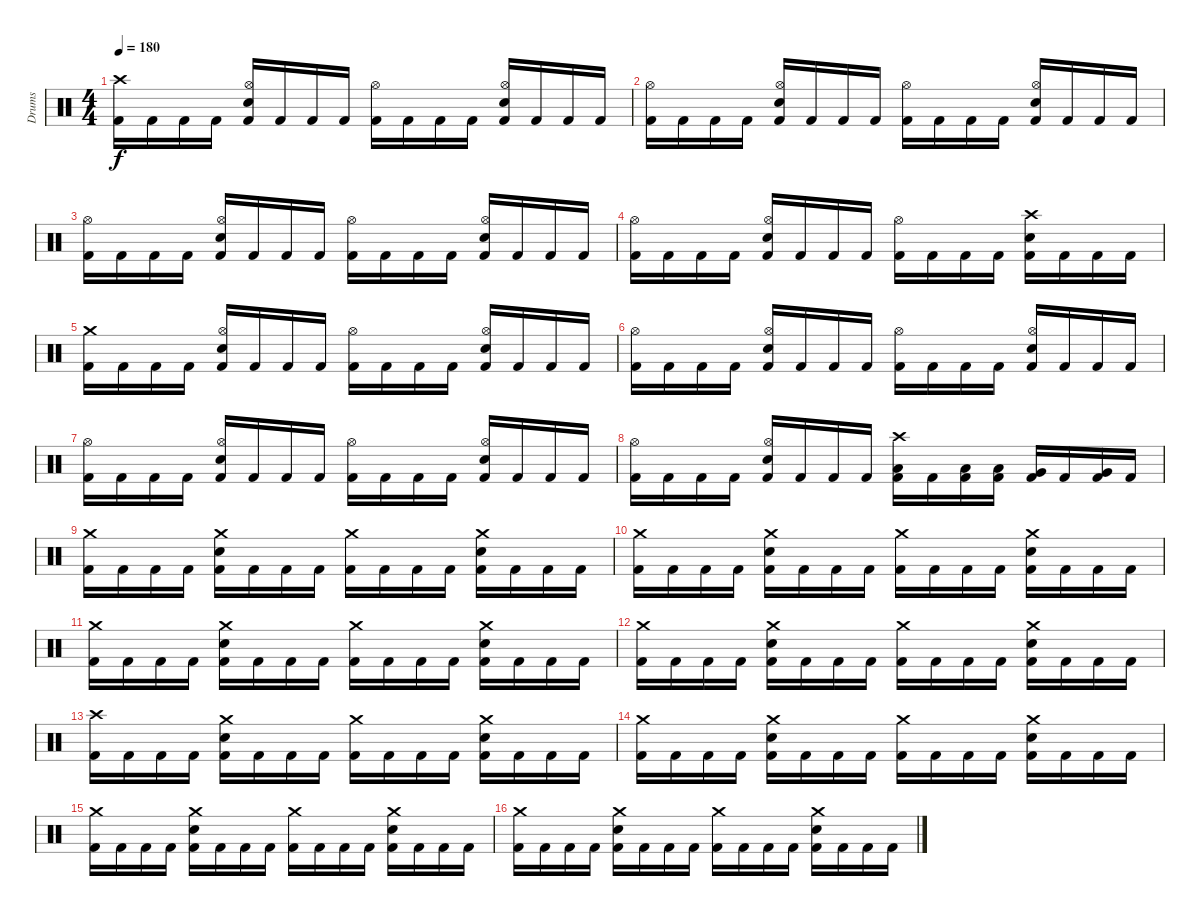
\track ("Drums" "Drums") {instrument percussion}
\staff {score}
\articulation defaults
\ts (4 4)
\tempo 180
\clef neutral
\ks c
("Crash high (hit)" "Kick (hit) 2").16{dy f} "Kick (hit) 2".16 "Kick (hit) 2".16 "Kick (hit) 2".16 ("Hi-Hat (open)" "Electric Snare (hit)" "Kick (hit) 2").16 "Kick (hit) 2".16 "Kick (hit) 2".16 "Kick (hit) 2".16 ("Hi-Hat (open)" "Kick (hit) 2").16 "Kick (hit) 2".16 "Kick (hit) 2".16 "Kick (hit) 2".16 ("Hi-Hat (open)" "Electric Snare (hit)" "Kick (hit) 2").16 "Kick (hit) 2".16 "Kick (hit) 2".16 "Kick (hit) 2".16 |
("Hi-Hat (open)" "Kick (hit) 2").16 "Kick (hit) 2".16 "Kick (hit) 2".16 "Kick (hit) 2".16 ("Hi-Hat (open)" "Electric Snare (hit)" "Kick (hit) 2").16 "Kick (hit) 2".16 "Kick (hit) 2".16 "Kick (hit) 2".16 ("Hi-Hat (open)" "Kick (hit) 2").16 "Kick (hit) 2".16 "Kick (hit) 2".16 "Kick (hit) 2".16 ("Hi-Hat (open)" "Electric Snare (hit)" "Kick (hit) 2").16 "Kick (hit) 2".16 "Kick (hit) 2".16 "Kick (hit) 2".16 |
("Hi-Hat (open)" "Kick (hit) 2").16 "Kick (hit) 2".16 "Kick (hit) 2".16 "Kick (hit) 2".16 ("Hi-Hat (open)" "Electric Snare (hit)" "Kick (hit) 2").16 "Kick (hit) 2".16 "Kick (hit) 2".16 "Kick (hit) 2".16 ("Hi-Hat (open)" "Kick (hit) 2").16 "Kick (hit) 2".16 "Kick (hit) 2".16 "Kick (hit) 2".16 ("Hi-Hat (open)" "Electric Snare (hit)" "Kick (hit) 2").16 "Kick (hit) 2".16 "Kick (hit) 2".16 "Kick (hit) 2".16 |
("Hi-Hat (open)" "Kick (hit) 2").16 "Kick (hit) 2".16 "Kick (hit) 2".16 "Kick (hit) 2".16 ("Hi-Hat (open)" "Electric Snare (hit)" "Kick (hit) 2").16 "Kick (hit) 2".16 "Kick (hit) 2".16 "Kick (hit) 2".16 ("Hi-Hat (open)" "Kick (hit) 2").16 "Kick (hit) 2".16 "Kick (hit) 2".16 "Kick (hit) 2".16 ("Crash high (hit)" "Electric Snare (hit)" "Kick (hit) 2").16 "Kick (hit) 2".16 "Kick (hit) 2".16 "Kick (hit) 2".16 |
("Crash medium (hit)" "Kick (hit) 2").16 "Kick (hit) 2".16 "Kick (hit) 2".16 "Kick (hit) 2".16 ("Hi-Hat (open)" "Electric Snare (hit)" "Kick (hit) 2").16 "Kick (hit) 2".16 "Kick (hit) 2".16 "Kick (hit) 2".16 ("Hi-Hat (open)" "Kick (hit) 2").16 "Kick (hit) 2".16 "Kick (hit) 2".16 "Kick (hit) 2".16 ("Hi-Hat (open)" "Electric Snare (hit)" "Kick (hit) 2").16 "Kick (hit) 2".16 "Kick (hit) 2".16 "Kick (hit) 2".16 |
("Hi-Hat (open)" "Kick (hit) 2").16 "Kick (hit) 2".16 "Kick (hit) 2".16 "Kick (hit) 2".16 ("Hi-Hat (open)" "Electric Snare (hit)" "Kick (hit) 2").16 "Kick (hit) 2".16 "Kick (hit) 2".16 "Kick (hit) 2".16 ("Hi-Hat (open)" "Kick (hit) 2").16 "Kick (hit) 2".16 "Kick (hit) 2".16 "Kick (hit) 2".16 ("Hi-Hat (open)" "Electric Snare (hit)" "Kick (hit) 2").16 "Kick (hit) 2".16 "Kick (hit) 2".16 "Kick (hit) 2".16 |
("Hi-Hat (open)" "Kick (hit) 2").16 "Kick (hit) 2".16 "Kick (hit) 2".16 "Kick (hit) 2".16 ("Hi-Hat (open)" "Electric Snare (hit)" "Kick (hit) 2").16 "Kick (hit) 2".16 "Kick (hit) 2".16 "Kick (hit) 2".16 ("Hi-Hat (open)" "Kick (hit) 2").16 "Kick (hit) 2".16 "Kick (hit) 2".16 "Kick (hit) 2".16 ("Hi-Hat (open)" "Electric Snare (hit)" "Kick (hit) 2").16 "Kick (hit) 2".16 "Kick (hit) 2".16 "Kick (hit) 2".16 |
("Hi-Hat (open)" "Kick (hit) 2").16 "Kick (hit) 2".16 "Kick (hit) 2".16 "Kick (hit) 2".16 ("Hi-Hat (open)" "Electric Snare (hit)" "Kick (hit) 2").16 "Kick (hit) 2".16 "Kick (hit) 2".16 "Kick (hit) 2".16 ("Crash high (hit)" "Low Tom (hit)" "Kick (hit) 2").16 "Kick (hit) 2".16 ("Low Tom (hit)" "Kick (hit) 2").16 ("Low Tom (hit)" "Kick (hit) 2").16 ("Very Low Tom (hit)" "Kick (hit) 2").16 "Kick (hit) 2".16 ("Very Low Tom (hit)" "Kick (hit) 2").16 "Kick (hit) 2".16 |
("Crash medium (hit)" "Kick (hit) 2").16 "Kick (hit) 2".16 "Kick (hit) 2".16 "Kick (hit) 2".16 ("Crash medium (hit)" "Electric Snare (hit)" "Kick (hit) 2").16 "Kick (hit) 2".16 "Kick (hit) 2".16 "Kick (hit) 2".16 ("Crash medium (hit)" "Kick (hit) 2").16 "Kick (hit) 2".16 "Kick (hit) 2".16 "Kick (hit) 2".16 ("Crash medium (hit)" "Electric Snare (hit)" "Kick (hit) 2").16 "Kick (hit) 2".16 "Kick (hit) 2".16 "Kick (hit) 2".16 |
("Crash medium (hit)" "Kick (hit) 2").16 "Kick (hit) 2".16 "Kick (hit) 2".16 "Kick (hit) 2".16 ("Crash medium (hit)" "Electric Snare (hit)" "Kick (hit) 2").16 "Kick (hit) 2".16 "Kick (hit) 2".16 "Kick (hit) 2".16 ("Crash medium (hit)" "Kick (hit) 2").16 "Kick (hit) 2".16 "Kick (hit) 2".16 "Kick (hit) 2".16 ("Crash medium (hit)" "Electric Snare (hit)" "Kick (hit) 2").16 "Kick (hit) 2".16 "Kick (hit) 2".16 "Kick (hit) 2".16 |
("Crash medium (hit)" "Kick (hit) 2").16 "Kick (hit) 2".16 "Kick (hit) 2".16 "Kick (hit) 2".16 ("Crash medium (hit)" "Electric Snare (hit)" "Kick (hit) 2").16 "Kick (hit) 2".16 "Kick (hit) 2".16 "Kick (hit) 2".16 ("Crash medium (hit)" "Kick (hit) 2").16 "Kick (hit) 2".16 "Kick (hit) 2".16 "Kick (hit) 2".16 ("Crash medium (hit)" "Electric Snare (hit)" "Kick (hit) 2").16 "Kick (hit) 2".16 "Kick (hit) 2".16 "Kick (hit) 2".16 |
("Crash medium (hit)" "Kick (hit) 2").16 "Kick (hit) 2".16 "Kick (hit) 2".16 "Kick (hit) 2".16 ("Crash medium (hit)" "Electric Snare (hit)" "Kick (hit) 2").16 "Kick (hit) 2".16 "Kick (hit) 2".16 "Kick (hit) 2".16 ("Crash medium (hit)" "Kick (hit) 2").16 "Kick (hit) 2".16 "Kick (hit) 2".16 "Kick (hit) 2".16 ("Crash medium (hit)" "Electric Snare (hit)" "Kick (hit) 2").16 "Kick (hit) 2".16 "Kick (hit) 2".16 "Kick (hit) 2".16 |
("Crash high (hit)" "Kick (hit) 2").16 "Kick (hit) 2".16 "Kick (hit) 2".16 "Kick (hit) 2".16 ("Crash medium (hit)" "Electric Snare (hit)" "Kick (hit) 2").16 "Kick (hit) 2".16 "Kick (hit) 2".16 "Kick (hit) 2".16 ("Crash medium (hit)" "Kick (hit) 2").16 "Kick (hit) 2".16 "Kick (hit) 2".16 "Kick (hit) 2".16 ("Crash medium (hit)" "Electric Snare (hit)" "Kick (hit) 2").16 "Kick (hit) 2".16 "Kick (hit) 2".16 "Kick (hit) 2".16 |
("Crash medium (hit)" "Kick (hit) 2").16 "Kick (hit) 2".16 "Kick (hit) 2".16 "Kick (hit) 2".16 ("Crash medium (hit)" "Electric Snare (hit)" "Kick (hit) 2").16 "Kick (hit) 2".16 "Kick (hit) 2".16 "Kick (hit) 2".16 ("Crash medium (hit)" "Kick (hit) 2").16 "Kick (hit) 2".16 "Kick (hit) 2".16 "Kick (hit) 2".16 ("Crash medium (hit)" "Electric Snare (hit)" "Kick (hit) 2").16 "Kick (hit) 2".16 "Kick (hit) 2".16 "Kick (hit) 2".16 |
("Crash medium (hit)" "Kick (hit) 2").16 "Kick (hit) 2".16 "Kick (hit) 2".16 "Kick (hit) 2".16 ("Crash medium (hit)" "Electric Snare (hit)" "Kick (hit) 2").16 "Kick (hit) 2".16 "Kick (hit) 2".16 "Kick (hit) 2".16 ("Crash medium (hit)" "Kick (hit) 2").16 "Kick (hit) 2".16 "Kick (hit) 2".16 "Kick (hit) 2".16 ("Crash medium (hit)" "Electric Snare (hit)" "Kick (hit) 2").16 "Kick (hit) 2".16 "Kick (hit) 2".16 "Kick (hit) 2".16 |
("Crash medium (hit)" "Kick (hit) 2").16 "Kick (hit) 2".16 "Kick (hit) 2".16 "Kick (hit) 2".16 ("Crash medium (hit)" "Electric Snare (hit)" "Kick (hit) 2").16 "Kick (hit) 2".16 "Kick (hit) 2".16 "Kick (hit) 2".16 ("Crash medium (hit)" "Kick (hit) 2").16 "Kick (hit) 2".16 "Kick (hit) 2".16 "Kick (hit) 2".16 ("Crash medium (hit)" "Electric Snare (hit)" "Kick (hit) 2").16 "Kick (hit) 2".16 "Kick (hit) 2".16 "Kick (hit) 2".16
